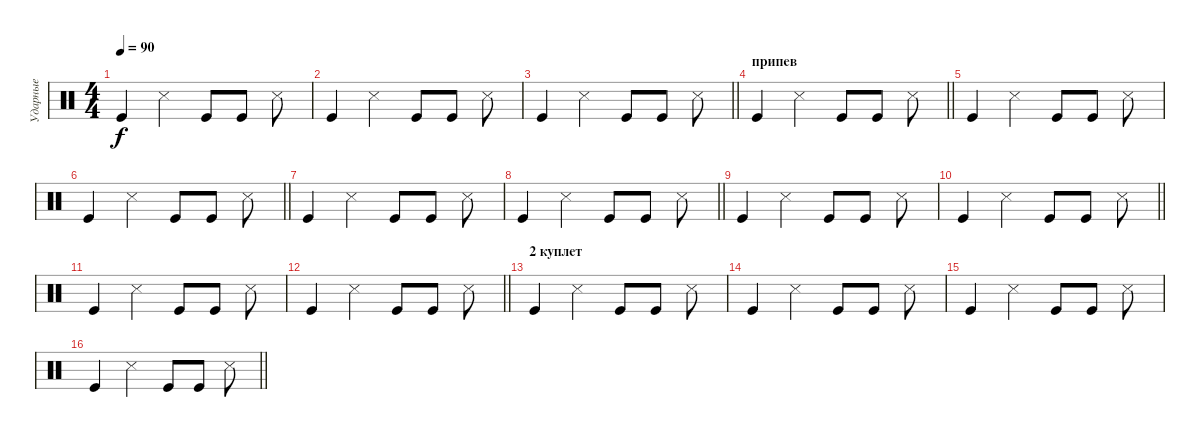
\track ("Ударные" "Ударные") {instrument percussion}
\staff {score}
\articulation defaults
\ts (4 4)
\tempo 90
\clef neutral
\ks c "Kick (hit)".4{dy f} "Snare (side stick) 3".4 "Kick (hit)".8 "Kick (hit)".8 "Snare (side stick) 3".8
|
"Kick (hit)".4 "Snare (side stick) 3".4 "Kick (hit)".8 "Kick (hit)".8 "Snare (side stick) 3".8 |
\barLineRight lightlight "Kick (hit)".4 "Snare (side stick) 3".4 "Kick (hit)".8 "Kick (hit)".8 "Snare (side stick) 3".8
|
\section ("" "припев")
\barLineRight lightlight "Kick (hit)".4 "Snare (side stick) 3".4 "Kick (hit)".8 "Kick (hit)".8 "Snare (side stick) 3".8
|
"Kick (hit)".4 "Snare (side stick) 3".4 "Kick (hit)".8 "Kick (hit)".8 "Snare (side stick) 3".8 |
\barLineRight lightlight "Kick (hit)".4 "Snare (side stick) 3".4 "Kick (hit)".8 "Kick (hit)".8 "Snare (side stick) 3".8
|
"Kick (hit)".4 "Snare (side stick) 3".4 "Kick (hit)".8 "Kick (hit)".8 "Snare (side stick) 3".8 |
\barLineRight lightlight "Kick (hit)".4 "Snare (side stick) 3".4 "Kick (hit)".8 "Kick (hit)".8 "Snare (side stick) 3".8
|
"Kick (hit)".4 "Snare (side stick) 3".4 "Kick (hit)".8 "Kick (hit)".8 "Snare (side stick) 3".8 |
\barLineRight lightlight "Kick (hit)".4 "Snare (side stick) 3".4 "Kick (hit)".8 "Kick (hit)".8 "Snare (side stick) 3".8
|
"Kick (hit)".4 "Snare (side stick) 3".4 "Kick (hit)".8 "Kick (hit)".8 "Snare (side stick) 3".8 |
\barLineRight lightlight "Kick (hit)".4 "Snare (side stick) 3".4 "Kick (hit)".8 "Kick (hit)".8 "Snare (side stick) 3".8
|
\section ("" "2 куплет")
"Kick (hit)".4 "Snare (side stick) 3".4 "Kick (hit)".8 "Kick (hit)".8 "Snare (side stick) 3".8 |
"Kick (hit)".4 "Snare (side stick) 3".4 "Kick (hit)".8 "Kick (hit)".8 "Snare (side stick) 3".8 |
"Kick (hit)".4 "Snare (side stick) 3".4 "Kick (hit)".8 "Kick (hit)".8 "Snare (side stick) 3".8 |
\barLineRight lightlight "Kick (hit)".4 "Snare (side stick) 3".4 "Kick (hit)".8 "Kick (hit)".8 "Snare (side stick) 3".8
